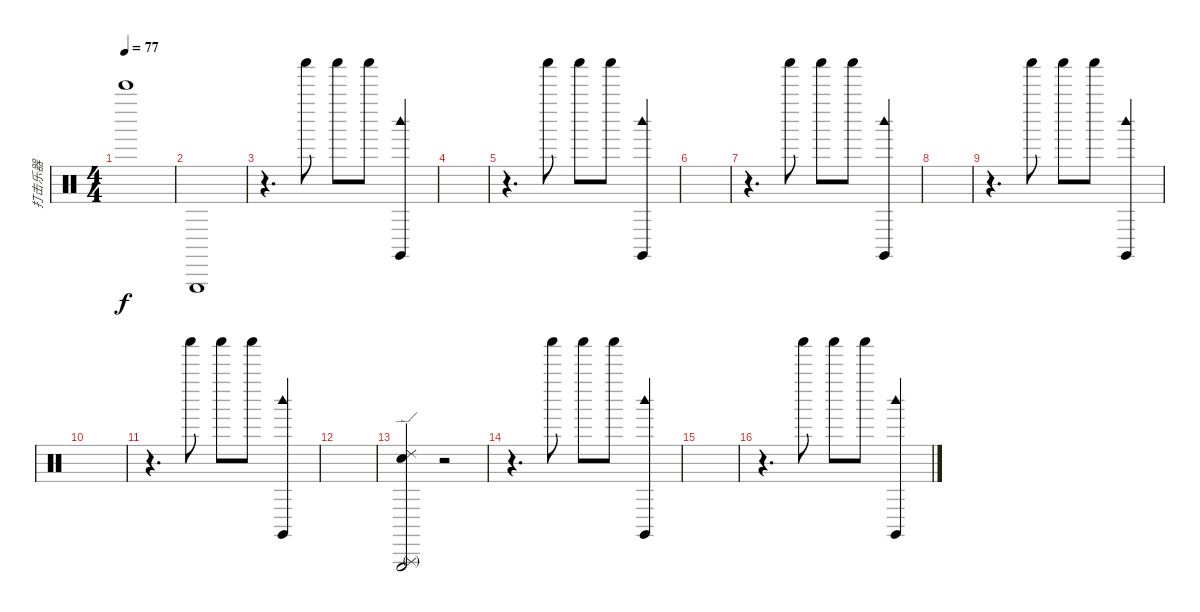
\track ("打击乐器" "打击乐器") {instrument percussion}
\staff {score}
\articulation defaults
\ts (4 4)
\tempo 77
\clef neutral
\ks c "Bell Tree (hit)".1{dy f}
|
"Triangle (hit)".1 |
r.4{d} "Shaker (hit)".8 "Shaker (hit)".8 "Shaker (hit)".8 ("Claves (hit)" "Woodblock high (hit)").4 |
|
r.4{d} "Shaker (hit)".8 "Shaker (hit)".8 "Shaker (hit)".8 ("Claves (hit)" "Woodblock high (hit)").4 |
|
r.4{d} "Shaker (hit)".8 "Shaker (hit)".8 "Shaker (hit)".8 ("Claves (hit)" "Woodblock high (hit)").4 |
|
r.4{d} "Shaker (hit)".8 "Shaker (hit)".8 "Shaker (hit)".8 ("Claves (hit)" "Woodblock high (hit)").4 |
|
r.4{d} "Shaker (hit)".8 "Shaker (hit)".8 "Shaker (hit)".8 ("Claves (hit)" "Woodblock high (hit)").4 |
|
("Triangle (rnute)" "Triangle (hit)" "Ride (edge) 2" "Metronome (bell)").2 r.2 |
r.4{d} "Shaker (hit)".8 "Shaker (hit)".8 "Shaker (hit)".8 ("Claves (hit)" "Woodblock high (hit)").4 |
|
r.4{d} "Shaker (hit)".8 "Shaker (hit)".8 "Shaker (hit)".8 ("Claves (hit)" "Woodblock high (hit)").4
